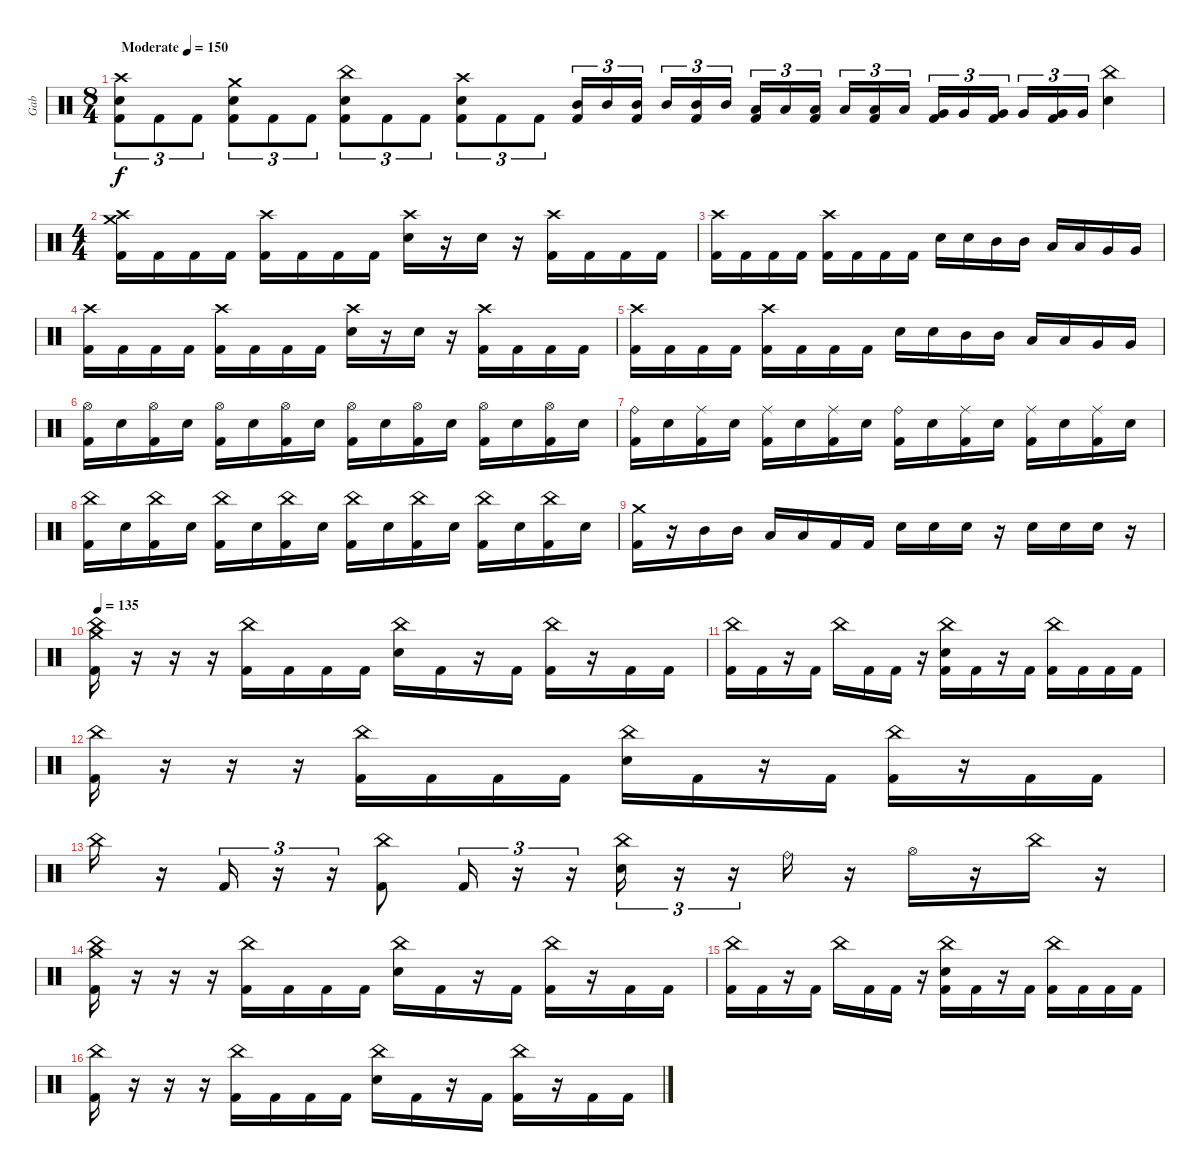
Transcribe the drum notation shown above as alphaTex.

\track ("Gab" "Gab") {instrument percussion}
\staff {score}
\articulation defaults
\ts (8 4)
\tempo (150 "Moderate")
\clef neutral
\ks c
("Crash high (hit)" "Electric Snare (hit)" "Kick (hit) 2").8{tu (3 2) dy f} "Kick (hit) 2".8{tu (3 2)} "Kick (hit) 2".8{tu (3 2)} ("Crash medium (hit)" "Electric Snare (hit)" "Kick (hit) 2").8{tu (3 2)} "Kick (hit) 2".8{tu (3 2)} "Kick (hit) 2".8{tu (3 2)} ("China (hit)" "Electric Snare (hit)" "Kick (hit) 2").8{tu (3 2)} "Kick (hit) 2".8{tu (3 2)} "Kick (hit) 2".8{tu (3 2)} ("Crash high (hit)" "Electric Snare (hit)" "Kick (hit) 2").8{tu (3 2)} "Kick (hit) 2".8{tu (3 2)} "Kick (hit) 2".8{tu (3 2)} ("Mid Tom (hit)" "Kick (hit) 2").16{tu (3 2)} "Mid Tom (hit)".16{tu (3 2)} ("Mid Tom (hit)" "Kick (hit) 2").16{tu (3 2) beam splitsecondary} "Mid Tom (hit)".16{tu (3 2)} ("Mid Tom (hit)" "Kick (hit) 2").16{tu (3 2)} "Mid Tom (hit)".16{tu (3 2)} ("Low Tom (hit)" "Kick (hit) 2").16{tu (3 2)} "Low Tom (hit)".16{tu (3 2)} ("Low Tom (hit)" "Kick (hit) 2").16{tu (3 2) beam splitsecondary} "Low Tom (hit)".16{tu (3 2)} ("Low Tom (hit)" "Kick (hit) 2").16{tu (3 2)} "Low Tom (hit)".16{tu (3 2)} ("Very Low Tom (hit)" "Kick (hit) 2").16{tu (3 2)} "Very Low Tom (hit)".16{tu (3 2)} ("Very Low Tom (hit)" "Kick (hit) 2").16{tu (3 2) beam splitsecondary} "Very Low Tom (hit)".16{tu (3 2)} ("Very Low Tom (hit)" "Kick (hit) 2").16{tu (3 2)} "Very Low Tom (hit)".16{tu (3 2)} ("China (hit)" "Electric Snare (hit)").4 |
\ts (4 4)
("Crash medium (hit)" "Crash high (hit)" "Kick (hit) 2").16 "Kick (hit) 2".16 "Kick (hit) 2".16 "Kick (hit) 2".16 ("Crash high (hit)" "Kick (hit) 2").16 "Kick (hit) 2".16 "Kick (hit) 2".16 "Kick (hit) 2".16 ("Crash high (hit)" "Electric Snare (hit)").16 r.16 "Electric Snare (hit)".16 r.16 ("Crash high (hit)" "Kick (hit) 2").16 "Kick (hit) 2".16 "Kick (hit) 2".16 "Kick (hit) 2".16 |
("Crash high (hit)" "Kick (hit) 2").16 "Kick (hit) 2".16 "Kick (hit) 2".16 "Kick (hit) 2".16 ("Crash high (hit)" "Kick (hit) 2").16 "Kick (hit) 2".16 "Kick (hit) 2".16 "Kick (hit) 2".16 "Electric Snare (hit)".16 "Electric Snare (hit)".16 "Mid Tom (hit)".16 "Mid Tom (hit)".16 "Low Tom (hit)".16 "Low Tom (hit)".16 "Very Low Tom (hit)".16 "Very Low Tom (hit)".16 |
("Crash high (hit)" "Kick (hit) 2").16 "Kick (hit) 2".16 "Kick (hit) 2".16 "Kick (hit) 2".16 ("Crash high (hit)" "Kick (hit) 2").16 "Kick (hit) 2".16 "Kick (hit) 2".16 "Kick (hit) 2".16 ("Crash high (hit)" "Electric Snare (hit)").16 r.16 "Electric Snare (hit)".16 r.16 ("Crash high (hit)" "Kick (hit) 2").16 "Kick (hit) 2".16 "Kick (hit) 2".16 "Kick (hit) 2".16 |
("Crash high (hit)" "Kick (hit) 2").16 "Kick (hit) 2".16 "Kick (hit) 2".16 "Kick (hit) 2".16 ("Crash high (hit)" "Kick (hit) 2").16 "Kick (hit) 2".16 "Kick (hit) 2".16 "Kick (hit) 2".16 "Electric Snare (hit)".16 "Electric Snare (hit)".16 "Mid Tom (hit)".16 "Mid Tom (hit)".16 "Low Tom (hit)".16 "Low Tom (hit)".16 "Very Low Tom (hit)".16 "Very Low Tom (hit)".16 |
("Hi-Hat (open)" "Kick (hit) 2").16 "Electric Snare (hit)".16 ("Hi-Hat (open)" "Kick (hit) 2").16 "Electric Snare (hit)".16 ("Hi-Hat (open)" "Kick (hit) 2").16 "Electric Snare (hit)".16 ("Hi-Hat (open)" "Kick (hit) 2").16 "Electric Snare (hit)".16 ("Hi-Hat (open)" "Kick (hit) 2").16 "Electric Snare (hit)".16 ("Hi-Hat (open)" "Kick (hit) 2").16 "Electric Snare (hit)".16 ("Hi-Hat (open)" "Kick (hit) 2").16 "Electric Snare (hit)".16 ("Hi-Hat (open)" "Kick (hit) 2").16 "Electric Snare (hit)".16 |
("Ride (bell)" "Kick (hit) 2").16 "Electric Snare (hit)".16 ("Ride (middle)" "Kick (hit) 2").16 "Electric Snare (hit)".16 ("Ride (middle)" "Kick (hit) 2").16 "Electric Snare (hit)".16 ("Ride (middle)" "Kick (hit) 2").16 "Electric Snare (hit)".16 ("Ride (bell)" "Kick (hit) 2").16 "Electric Snare (hit)".16 ("Ride (middle)" "Kick (hit) 2").16 "Electric Snare (hit)".16 ("Ride (middle)" "Kick (hit) 2").16 "Electric Snare (hit)".16 ("Ride (middle)" "Kick (hit) 2").16 "Electric Snare (hit)".16 |
("China (hit)" "Kick (hit) 2").16 "Electric Snare (hit)".16 ("China (hit)" "Kick (hit) 2").16 "Electric Snare (hit)".16 ("China (hit)" "Kick (hit) 2").16 "Electric Snare (hit)".16 ("China (hit)" "Kick (hit) 2").16 "Electric Snare (hit)".16 ("China (hit)" "Kick (hit) 2").16 "Electric Snare (hit)".16 ("China (hit)" "Kick (hit) 2").16 "Electric Snare (hit)".16 ("China (hit)" "Kick (hit) 2").16 "Electric Snare (hit)".16 ("China (hit)" "Kick (hit) 2").16 "Electric Snare (hit)".16 |
("Crash medium (hit)" "Kick (hit) 2").16 r.16 "Mid Tom (hit)".16 "Mid Tom (hit)".16 "Low Tom (hit)".16 "Low Tom (hit)".16 "Kick (hit) 2".16 "Kick (hit) 2".16 "Electric Snare (hit)".16 "Electric Snare (hit)".16 "Electric Snare (hit)".16 r.16 "Electric Snare (hit)".16 "Electric Snare (hit)".16 "Electric Snare (hit)".16 r.16 |
\tempo 135
("Crash medium (hit)" "China (hit)" "Kick (hit) 2").16 r.16 r.16 r.16 ("China (hit)" "Kick (hit) 2").16 "Kick (hit) 2".16 "Kick (hit) 2".16 "Kick (hit) 2".16 ("China (hit)" "Electric Snare (hit)").16 "Kick (hit) 2".16 r.16 "Kick (hit) 2".16 ("China (hit)" "Kick (hit) 2").16 r.16 "Kick (hit) 2".16 "Kick (hit) 2".16 |
("China (hit)" "Kick (hit) 2").16 "Kick (hit) 2".16 r.16 "Kick (hit) 2".16 "China (hit)".16 "Kick (hit) 2".16 "Kick (hit) 2".16 r.16 ("China (hit)" "Electric Snare (hit)" "Kick (hit) 2").16 "Kick (hit) 2".16 r.16 "Kick (hit) 2".16 ("China (hit)" "Kick (hit) 2").16 "Kick (hit) 2".16 "Kick (hit) 2".16 "Kick (hit) 2".16 |
("China (hit)" "Kick (hit) 2").16 r.16 r.16 r.16 ("China (hit)" "Kick (hit) 2").16 "Kick (hit) 2".16 "Kick (hit) 2".16 "Kick (hit) 2".16 ("China (hit)" "Electric Snare (hit)").16 "Kick (hit) 2".16 r.16 "Kick (hit) 2".16 ("China (hit)" "Kick (hit) 2").16 r.16 "Kick (hit) 2".16 "Kick (hit) 2".16 |
"China (hit)".16 r.16 "Kick (hit) 2".16{tu (3 2)} r.16{tu (3 2)} r.16{tu (3 2)} ("China (hit)" "Kick (hit) 2").8 "Kick (hit) 2".16{tu (3 2)} r.16{tu (3 2)} r.16{tu (3 2)} ("China (hit)" "Electric Snare (hit)").16{tu (3 2)} r.16{tu (3 2)} r.16{tu (3 2)} "Ride (bell)".16 r.16 "Hi-Hat (open)".16 r.16 "China (hit)".16 r.16 |
("Crash medium (hit)" "China (hit)" "Kick (hit) 2").16 r.16 r.16 r.16 ("China (hit)" "Kick (hit) 2").16 "Kick (hit) 2".16 "Kick (hit) 2".16 "Kick (hit) 2".16 ("China (hit)" "Electric Snare (hit)").16 "Kick (hit) 2".16 r.16 "Kick (hit) 2".16 ("China (hit)" "Kick (hit) 2").16 r.16 "Kick (hit) 2".16 "Kick (hit) 2".16 |
("China (hit)" "Kick (hit) 2").16 "Kick (hit) 2".16 r.16 "Kick (hit) 2".16 "China (hit)".16 "Kick (hit) 2".16 "Kick (hit) 2".16 r.16 ("China (hit)" "Electric Snare (hit)" "Kick (hit) 2").16 "Kick (hit) 2".16 r.16 "Kick (hit) 2".16 ("China (hit)" "Kick (hit) 2").16 "Kick (hit) 2".16 "Kick (hit) 2".16 "Kick (hit) 2".16 |
("China (hit)" "Kick (hit) 2").16 r.16 r.16 r.16 ("China (hit)" "Kick (hit) 2").16 "Kick (hit) 2".16 "Kick (hit) 2".16 "Kick (hit) 2".16 ("China (hit)" "Electric Snare (hit)").16 "Kick (hit) 2".16 r.16 "Kick (hit) 2".16 ("China (hit)" "Kick (hit) 2").16 r.16 "Kick (hit) 2".16 "Kick (hit) 2".16
